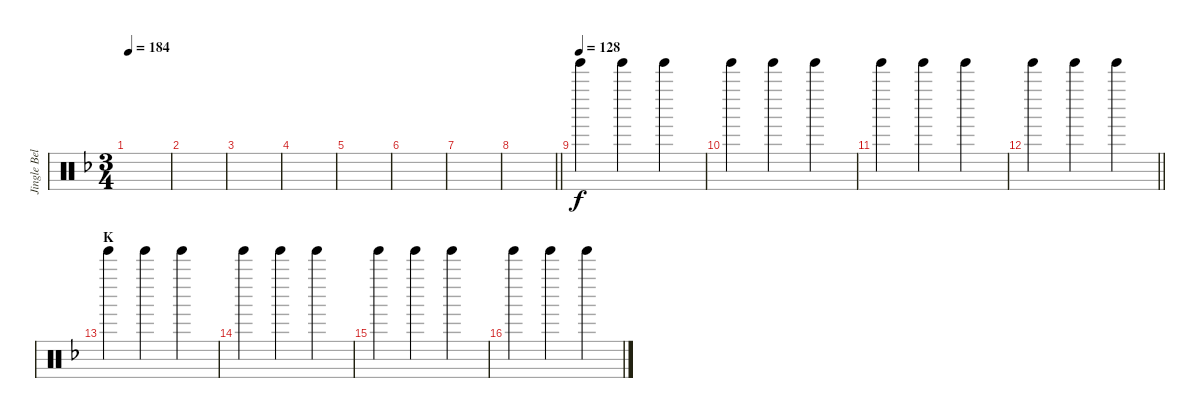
\track ("Jingle Bells" "Jingle Bel") {instrument percussion}
\staff {score}
\articulation defaults
\ts (3 4)
\tempo 184
\clef neutral
\ks f
|
|
|
|
|
|
|
\barLineRight lightlight
|
\tempo (128)
"Tinkle Bell (hit)".4{dy f} "Tinkle Bell (hit)".4 "Tinkle Bell (hit)".4 |
"Tinkle Bell (hit)".4 "Tinkle Bell (hit)".4 "Tinkle Bell (hit)".4 |
"Tinkle Bell (hit)".4 "Tinkle Bell (hit)".4 "Tinkle Bell (hit)".4 |
\barLineRight lightlight "Tinkle Bell (hit)".4 "Tinkle Bell (hit)".4 "Tinkle Bell (hit)".4
|
\section ("" "K")
"Tinkle Bell (hit)".4 "Tinkle Bell (hit)".4 "Tinkle Bell (hit)".4 |
"Tinkle Bell (hit)".4 "Tinkle Bell (hit)".4 "Tinkle Bell (hit)".4 |
"Tinkle Bell (hit)".4 "Tinkle Bell (hit)".4 "Tinkle Bell (hit)".4 |
"Tinkle Bell (hit)".4 "Tinkle Bell (hit)".4 "Tinkle Bell (hit)".4
